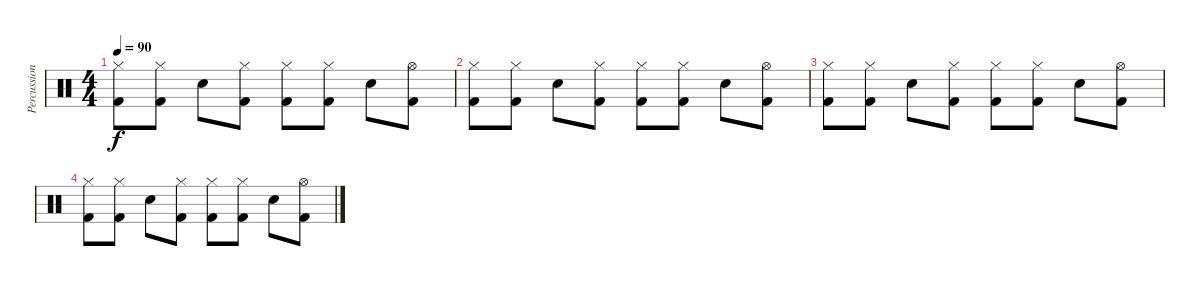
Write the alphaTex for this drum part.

\track ("Percussions" "Percussion") {instrument percussion}
\staff {score}
\articulation defaults
\ts (4 4)
\tempo 90
\clef neutral
\ks c
("Hi-Hat (closed)" "Kick (hit) 2").8{dy f volume 6} ("Hi-Hat (closed)" "Kick (hit) 2").8 "Snare (hit) 2".8 ("Hi-Hat (closed)" "Kick (hit) 2").8 ("Hi-Hat (closed)" "Kick (hit) 2").8 ("Hi-Hat (closed)" "Kick (hit) 2").8 "Snare (hit) 2".8 ("Hi-Hat (open)" "Kick (hit) 2").8 |
("Hi-Hat (closed)" "Kick (hit) 2").8 ("Hi-Hat (closed)" "Kick (hit) 2").8 "Snare (hit) 2".8 ("Hi-Hat (closed)" "Kick (hit) 2").8 ("Hi-Hat (closed)" "Kick (hit) 2").8 ("Hi-Hat (closed)" "Kick (hit) 2").8 "Snare (hit) 2".8 ("Hi-Hat (open)" "Kick (hit) 2").8 |
("Hi-Hat (closed)" "Kick (hit) 2").8{volume 0} ("Hi-Hat (closed)" "Kick (hit) 2").8 "Snare (hit) 2".8 ("Hi-Hat (closed)" "Kick (hit) 2").8 ("Hi-Hat (closed)" "Kick (hit) 2").8 ("Hi-Hat (closed)" "Kick (hit) 2").8 "Snare (hit) 2".8 ("Hi-Hat (open)" "Kick (hit) 2").8 |
("Hi-Hat (closed)" "Kick (hit) 2").8 ("Hi-Hat (closed)" "Kick (hit) 2").8 "Snare (hit) 2".8 ("Hi-Hat (closed)" "Kick (hit) 2").8 ("Hi-Hat (closed)" "Kick (hit) 2").8 ("Hi-Hat (closed)" "Kick (hit) 2").8 "Snare (hit) 2".8 ("Hi-Hat (open)" "Kick (hit) 2").8
